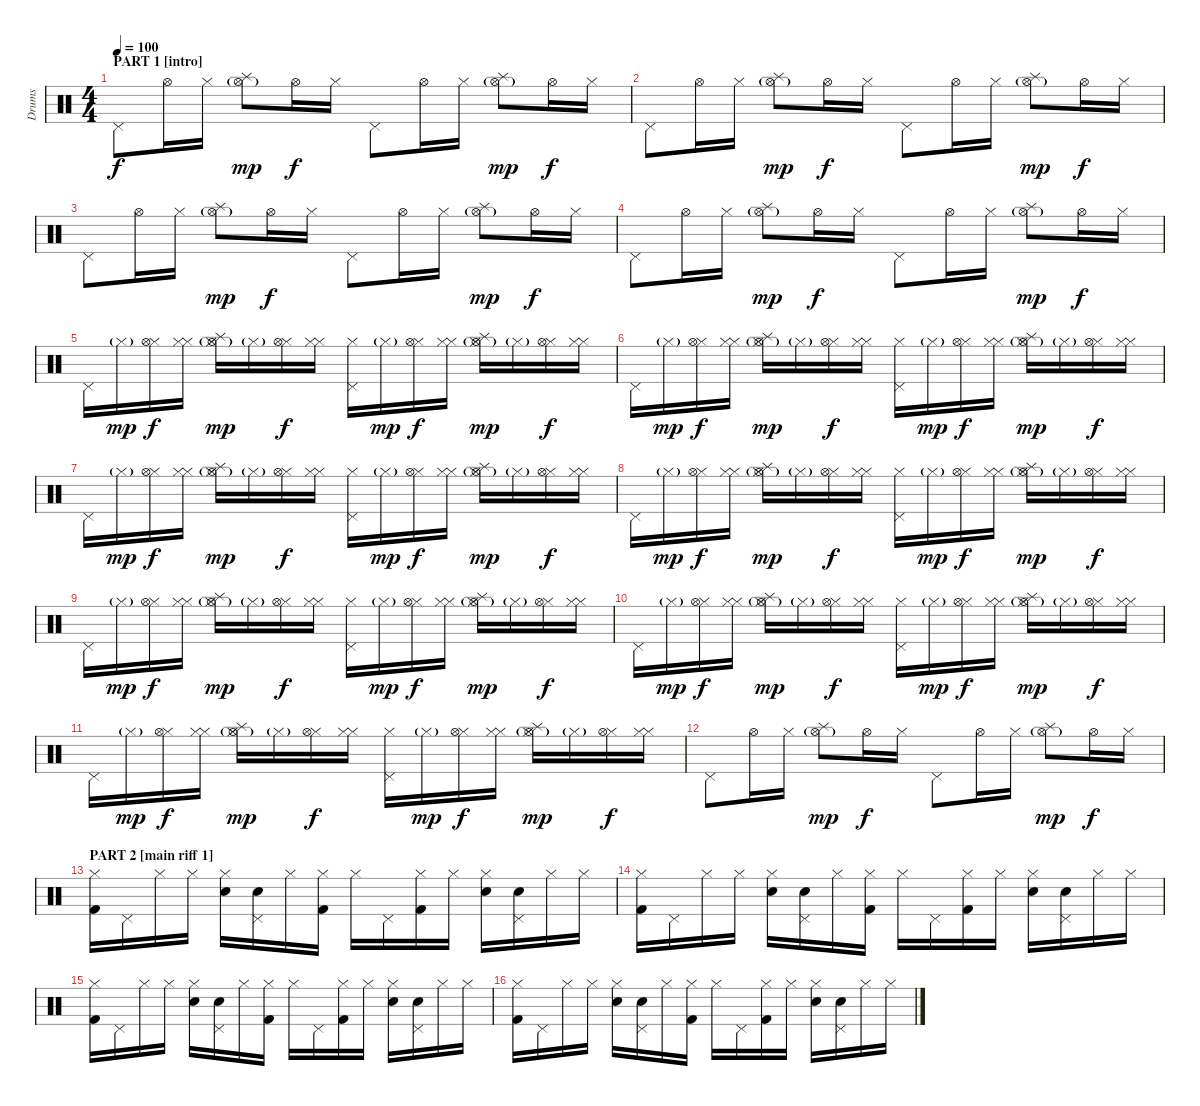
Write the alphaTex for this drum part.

\track ("Drums" "Drums") {instrument percussion}
\staff {score}
\articulation defaults
\ts (4 4)
\section ("" "PART 1 [intro]")
\tempo 100
\clef neutral
\ks c "Pedal Hi-Hat (hit)".8{dy f} "Hi-Hat (open)".16 "Hi-Hat (closed)".16
("Hi-Hat (open)"{g} "Splash (hit)").8{dy mp} "Hi-Hat (open)".16{dy f} "Hi-Hat (closed)".16 "Pedal Hi-Hat (hit)".8 "Hi-Hat (open)".16 "Hi-Hat (closed)".16 ("Hi-Hat (open)"{g} "Splash (hit)").8{dy mp} "Hi-Hat (open)".16{dy f} "Hi-Hat (closed)".16 |
"Pedal Hi-Hat (hit)".8 "Hi-Hat (open)".16 "Hi-Hat (closed)".16 ("Hi-Hat (open)"{g} "Splash (hit)").8{dy mp} "Hi-Hat (open)".16{dy f} "Hi-Hat (closed)".16 "Pedal Hi-Hat (hit)".8 "Hi-Hat (open)".16 "Hi-Hat (closed)".16 ("Hi-Hat (open)"{g} "Splash (hit)").8{dy mp} "Hi-Hat (open)".16{dy f} "Hi-Hat (closed)".16 |
"Pedal Hi-Hat (hit)".8 "Hi-Hat (open)".16 "Hi-Hat (closed)".16 ("Hi-Hat (open)"{g} "Splash (hit)").8{dy mp} "Hi-Hat (open)".16{dy f} "Hi-Hat (closed)".16 "Pedal Hi-Hat (hit)".8 "Hi-Hat (open)".16 "Hi-Hat (closed)".16 ("Hi-Hat (open)"{g} "Splash (hit)").8{dy mp} "Hi-Hat (open)".16{dy f} "Hi-Hat (closed)".16 |
"Pedal Hi-Hat (hit)".8 "Hi-Hat (open)".16 "Hi-Hat (closed)".16 ("Hi-Hat (open)"{g} "Splash (hit)").8{dy mp} "Hi-Hat (open)".16{dy f} "Hi-Hat (closed)".16 "Pedal Hi-Hat (hit)".8 "Hi-Hat (open)".16 "Hi-Hat (closed)".16 ("Hi-Hat (open)"{g} "Splash (hit)").8{dy mp} "Hi-Hat (open)".16{dy f} "Hi-Hat (closed)".16 |
"Pedal Hi-Hat (hit)".16 "Hi-Hat (closed)"{g}.16{dy mp} ("Hi-Hat (closed)" "Hi-Hat (open)").16{dy f} ("Hi-Hat (closed)" "Hi-Hat (closed)").16 ("Hi-Hat (closed)" "Hi-Hat (open)"{g} "Splash (hit)").16{dy mp} "Hi-Hat (closed)"{g}.16 ("Hi-Hat (closed)" "Hi-Hat (open)").16{dy f} ("Hi-Hat (closed)" "Hi-Hat (closed)").16 ("Hi-Hat (closed)" "Pedal Hi-Hat (hit)").16 "Hi-Hat (closed)"{g}.16{dy mp} ("Hi-Hat (closed)" "Hi-Hat (open)").16{dy f} ("Hi-Hat (closed)" "Hi-Hat (closed)").16 ("Hi-Hat (closed)" "Hi-Hat (open)"{g} "Splash (hit)").16{dy mp} "Hi-Hat (closed)"{g}.16 ("Hi-Hat (closed)" "Hi-Hat (open)").16{dy f} ("Hi-Hat (closed)" "Hi-Hat (closed)").16 |
"Pedal Hi-Hat (hit)".16 "Hi-Hat (closed)"{g}.16{dy mp} ("Hi-Hat (closed)" "Hi-Hat (open)").16{dy f} ("Hi-Hat (closed)" "Hi-Hat (closed)").16 ("Hi-Hat (closed)" "Hi-Hat (open)"{g} "Splash (hit)").16{dy mp} "Hi-Hat (closed)"{g}.16 ("Hi-Hat (closed)" "Hi-Hat (open)").16{dy f} ("Hi-Hat (closed)" "Hi-Hat (closed)").16 ("Hi-Hat (closed)" "Pedal Hi-Hat (hit)").16 "Hi-Hat (closed)"{g}.16{dy mp} ("Hi-Hat (closed)" "Hi-Hat (open)").16{dy f} ("Hi-Hat (closed)" "Hi-Hat (closed)").16 ("Hi-Hat (closed)" "Hi-Hat (open)"{g} "Splash (hit)").16{dy mp} "Hi-Hat (closed)"{g}.16 ("Hi-Hat (closed)" "Hi-Hat (open)").16{dy f} ("Hi-Hat (closed)" "Hi-Hat (closed)").16 |
"Pedal Hi-Hat (hit)".16 "Hi-Hat (closed)"{g}.16{dy mp} ("Hi-Hat (closed)" "Hi-Hat (open)").16{dy f} ("Hi-Hat (closed)" "Hi-Hat (closed)").16 ("Hi-Hat (closed)" "Hi-Hat (open)"{g} "Splash (hit)").16{dy mp} "Hi-Hat (closed)"{g}.16 ("Hi-Hat (closed)" "Hi-Hat (open)").16{dy f} ("Hi-Hat (closed)" "Hi-Hat (closed)").16 ("Hi-Hat (closed)" "Pedal Hi-Hat (hit)").16 "Hi-Hat (closed)"{g}.16{dy mp} ("Hi-Hat (closed)" "Hi-Hat (open)").16{dy f} ("Hi-Hat (closed)" "Hi-Hat (closed)").16 ("Hi-Hat (closed)" "Hi-Hat (open)"{g} "Splash (hit)").16{dy mp} "Hi-Hat (closed)"{g}.16 ("Hi-Hat (closed)" "Hi-Hat (open)").16{dy f} ("Hi-Hat (closed)" "Hi-Hat (closed)").16 |
"Pedal Hi-Hat (hit)".16 "Hi-Hat (closed)"{g}.16{dy mp} ("Hi-Hat (closed)" "Hi-Hat (open)").16{dy f} ("Hi-Hat (closed)" "Hi-Hat (closed)").16 ("Hi-Hat (closed)" "Hi-Hat (open)"{g} "Splash (hit)").16{dy mp} "Hi-Hat (closed)"{g}.16 ("Hi-Hat (closed)" "Hi-Hat (open)").16{dy f} ("Hi-Hat (closed)" "Hi-Hat (closed)").16 ("Hi-Hat (closed)" "Pedal Hi-Hat (hit)").16 "Hi-Hat (closed)"{g}.16{dy mp} ("Hi-Hat (closed)" "Hi-Hat (open)").16{dy f} ("Hi-Hat (closed)" "Hi-Hat (closed)").16 ("Hi-Hat (closed)" "Hi-Hat (open)"{g} "Splash (hit)").16{dy mp} "Hi-Hat (closed)"{g}.16 ("Hi-Hat (closed)" "Hi-Hat (open)").16{dy f} ("Hi-Hat (closed)" "Hi-Hat (closed)").16 |
"Pedal Hi-Hat (hit)".16 "Hi-Hat (closed)"{g}.16{dy mp} ("Hi-Hat (closed)" "Hi-Hat (open)").16{dy f} ("Hi-Hat (closed)" "Hi-Hat (closed)").16 ("Hi-Hat (closed)" "Hi-Hat (open)"{g} "Splash (hit)").16{dy mp} "Hi-Hat (closed)"{g}.16 ("Hi-Hat (closed)" "Hi-Hat (open)").16{dy f} ("Hi-Hat (closed)" "Hi-Hat (closed)").16 ("Hi-Hat (closed)" "Pedal Hi-Hat (hit)").16 "Hi-Hat (closed)"{g}.16{dy mp} ("Hi-Hat (closed)" "Hi-Hat (open)").16{dy f} ("Hi-Hat (closed)" "Hi-Hat (closed)").16 ("Hi-Hat (closed)" "Hi-Hat (open)"{g} "Splash (hit)").16{dy mp} "Hi-Hat (closed)"{g}.16 ("Hi-Hat (closed)" "Hi-Hat (open)").16{dy f} ("Hi-Hat (closed)" "Hi-Hat (closed)").16 |
"Pedal Hi-Hat (hit)".16 "Hi-Hat (closed)"{g}.16{dy mp} ("Hi-Hat (closed)" "Hi-Hat (open)").16{dy f} ("Hi-Hat (closed)" "Hi-Hat (closed)").16 ("Hi-Hat (closed)" "Hi-Hat (open)"{g} "Splash (hit)").16{dy mp} "Hi-Hat (closed)"{g}.16 ("Hi-Hat (closed)" "Hi-Hat (open)").16{dy f} ("Hi-Hat (closed)" "Hi-Hat (closed)").16 ("Hi-Hat (closed)" "Pedal Hi-Hat (hit)").16 "Hi-Hat (closed)"{g}.16{dy mp} ("Hi-Hat (closed)" "Hi-Hat (open)").16{dy f} ("Hi-Hat (closed)" "Hi-Hat (closed)").16 ("Hi-Hat (closed)" "Hi-Hat (open)"{g} "Splash (hit)").16{dy mp} "Hi-Hat (closed)"{g}.16 ("Hi-Hat (closed)" "Hi-Hat (open)").16{dy f} ("Hi-Hat (closed)" "Hi-Hat (closed)").16 |
"Pedal Hi-Hat (hit)".16 "Hi-Hat (closed)"{g}.16{dy mp} ("Hi-Hat (closed)" "Hi-Hat (open)").16{dy f} ("Hi-Hat (closed)" "Hi-Hat (closed)").16 ("Hi-Hat (closed)" "Hi-Hat (open)"{g} "Splash (hit)").16{dy mp} "Hi-Hat (closed)"{g}.16 ("Hi-Hat (closed)" "Hi-Hat (open)").16{dy f} ("Hi-Hat (closed)" "Hi-Hat (closed)").16 ("Hi-Hat (closed)" "Pedal Hi-Hat (hit)").16 "Hi-Hat (closed)"{g}.16{dy mp} ("Hi-Hat (closed)" "Hi-Hat (open)").16{dy f} ("Hi-Hat (closed)" "Hi-Hat (closed)").16 ("Hi-Hat (closed)" "Hi-Hat (open)"{g} "Splash (hit)").16{dy mp} "Hi-Hat (closed)"{g}.16 ("Hi-Hat (closed)" "Hi-Hat (open)").16{dy f} ("Hi-Hat (closed)" "Hi-Hat (closed)").16 |
"Pedal Hi-Hat (hit)".8 "Hi-Hat (open)".16 "Hi-Hat (closed)".16 ("Hi-Hat (open)"{g} "Splash (hit)").8{dy mp} "Hi-Hat (open)".16{dy f} "Hi-Hat (closed)".16 "Pedal Hi-Hat (hit)".8 "Hi-Hat (open)".16 "Hi-Hat (closed)".16 ("Hi-Hat (open)"{g} "Splash (hit)").8{dy mp} "Hi-Hat (open)".16{dy f} "Hi-Hat (closed)".16 |
\section ("" "PART 2 [main riff 1]")
("Kick (hit) 2" "Hi-Hat (closed)").16 "Pedal Hi-Hat (hit)".16 "Hi-Hat (closed)".16 "Hi-Hat (closed)".16 ("Snare (hit) 2" "Hi-Hat (closed)").16 ("Snare (hit) 2" "Pedal Hi-Hat (hit)").16 "Hi-Hat (closed)".16 ("Kick (hit) 2" "Hi-Hat (closed)").16 "Hi-Hat (closed)".16 "Pedal Hi-Hat (hit)".16 ("Kick (hit) 2" "Hi-Hat (closed)").16 "Hi-Hat (closed)".16 ("Snare (hit) 2" "Hi-Hat (closed)").16 ("Snare (hit) 2" "Pedal Hi-Hat (hit)").16 "Hi-Hat (closed)".16 "Hi-Hat (closed)".16 |
("Kick (hit) 2" "Hi-Hat (closed)").16 "Pedal Hi-Hat (hit)".16 "Hi-Hat (closed)".16 "Hi-Hat (closed)".16 ("Snare (hit) 2" "Hi-Hat (closed)").16 ("Snare (hit) 2" "Pedal Hi-Hat (hit)").16 "Hi-Hat (closed)".16 ("Kick (hit) 2" "Hi-Hat (closed)").16 "Hi-Hat (closed)".16 "Pedal Hi-Hat (hit)".16 ("Kick (hit) 2" "Hi-Hat (closed)").16 "Hi-Hat (closed)".16 ("Snare (hit) 2" "Hi-Hat (closed)").16 ("Snare (hit) 2" "Pedal Hi-Hat (hit)").16 "Hi-Hat (closed)".16 "Hi-Hat (closed)".16 |
("Kick (hit) 2" "Hi-Hat (closed)").16 "Pedal Hi-Hat (hit)".16 "Hi-Hat (closed)".16 "Hi-Hat (closed)".16 ("Snare (hit) 2" "Hi-Hat (closed)").16 ("Snare (hit) 2" "Pedal Hi-Hat (hit)").16 "Hi-Hat (closed)".16 ("Kick (hit) 2" "Hi-Hat (closed)").16 "Hi-Hat (closed)".16 "Pedal Hi-Hat (hit)".16 ("Kick (hit) 2" "Hi-Hat (closed)").16 "Hi-Hat (closed)".16 ("Snare (hit) 2" "Hi-Hat (closed)").16 ("Snare (hit) 2" "Pedal Hi-Hat (hit)").16 "Hi-Hat (closed)".16 "Hi-Hat (closed)".16 |
("Kick (hit) 2" "Hi-Hat (closed)").16 "Pedal Hi-Hat (hit)".16 "Hi-Hat (closed)".16 "Hi-Hat (closed)".16 ("Snare (hit) 2" "Hi-Hat (closed)").16 ("Snare (hit) 2" "Pedal Hi-Hat (hit)").16 "Hi-Hat (closed)".16 ("Kick (hit) 2" "Hi-Hat (closed)").16 "Hi-Hat (closed)".16 "Pedal Hi-Hat (hit)".16 ("Kick (hit) 2" "Hi-Hat (closed)").16 "Hi-Hat (closed)".16 ("Snare (hit) 2" "Hi-Hat (closed)").16 ("Snare (hit) 2" "Pedal Hi-Hat (hit)").16 "Hi-Hat (closed)".16 "Hi-Hat (closed)".16
